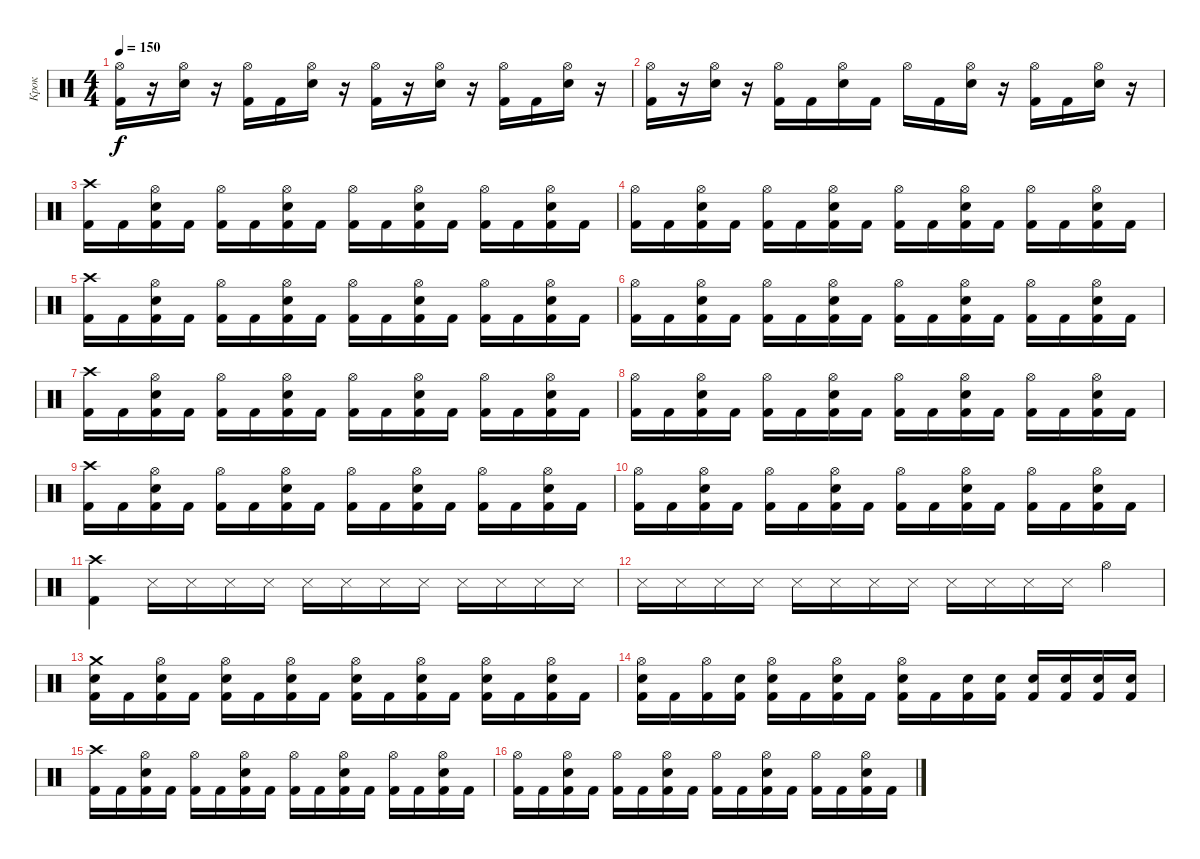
\track ("Крок" "Крок") {instrument percussion}
\staff {score}
\articulation defaults
\ts (4 4)
\tempo 150
\clef neutral
\ks c
("Hi-Hat (open)" "Kick (hit) 2").16{dy f} r.16 ("Hi-Hat (open)" "Electric Snare (hit)").16 r.16 ("Hi-Hat (open)" "Kick (hit) 2").16 "Kick (hit) 2".16 ("Hi-Hat (open)" "Electric Snare (hit)").16 r.16 ("Hi-Hat (open)" "Kick (hit) 2").16 r.16 ("Hi-Hat (open)" "Electric Snare (hit)").16 r.16 ("Hi-Hat (open)" "Kick (hit) 2").16 "Kick (hit) 2".16 ("Hi-Hat (open)" "Electric Snare (hit)").16 r.16 |
("Hi-Hat (open)" "Kick (hit) 2").16 r.16 ("Hi-Hat (open)" "Electric Snare (hit)").16 r.16 ("Hi-Hat (open)" "Kick (hit) 2").16 "Kick (hit) 2".16 ("Hi-Hat (open)" "Electric Snare (hit)").16 "Kick (hit) 2".16 "Hi-Hat (open)".16 "Kick (hit) 2".16 ("Hi-Hat (open)" "Electric Snare (hit)").16 r.16 ("Hi-Hat (open)" "Kick (hit) 2").16 "Kick (hit) 2".16 ("Hi-Hat (open)" "Electric Snare (hit)").16 r.16 |
("Crash high (hit)" "Kick (hit) 2").16 "Kick (hit) 2".16 ("Hi-Hat (open)" "Electric Snare (hit)" "Kick (hit) 2").16 "Kick (hit) 2".16 ("Hi-Hat (open)" "Kick (hit) 2").16 "Kick (hit) 2".16 ("Hi-Hat (open)" "Electric Snare (hit)" "Kick (hit) 2").16 "Kick (hit) 2".16 ("Hi-Hat (open)" "Kick (hit) 2").16 "Kick (hit) 2".16 ("Hi-Hat (open)" "Electric Snare (hit)" "Kick (hit) 2").16 "Kick (hit) 2".16 ("Hi-Hat (open)" "Kick (hit) 2").16 "Kick (hit) 2".16 ("Hi-Hat (open)" "Electric Snare (hit)" "Kick (hit) 2").16 "Kick (hit) 2".16 |
("Hi-Hat (open)" "Kick (hit) 2").16 "Kick (hit) 2".16 ("Hi-Hat (open)" "Electric Snare (hit)" "Kick (hit) 2").16 "Kick (hit) 2".16 ("Hi-Hat (open)" "Kick (hit) 2").16 "Kick (hit) 2".16 ("Hi-Hat (open)" "Electric Snare (hit)" "Kick (hit) 2").16 "Kick (hit) 2".16 ("Hi-Hat (open)" "Kick (hit) 2").16 "Kick (hit) 2".16 ("Hi-Hat (open)" "Electric Snare (hit)" "Kick (hit) 2").16 "Kick (hit) 2".16 ("Hi-Hat (open)" "Kick (hit) 2").16 "Kick (hit) 2".16 ("Hi-Hat (open)" "Electric Snare (hit)" "Kick (hit) 2").16 "Kick (hit) 2".16 |
("Crash high (hit)" "Kick (hit) 2").16 "Kick (hit) 2".16 ("Hi-Hat (open)" "Electric Snare (hit)" "Kick (hit) 2").16 "Kick (hit) 2".16 ("Hi-Hat (open)" "Kick (hit) 2").16 "Kick (hit) 2".16 ("Hi-Hat (open)" "Electric Snare (hit)" "Kick (hit) 2").16 "Kick (hit) 2".16 ("Hi-Hat (open)" "Kick (hit) 2").16 "Kick (hit) 2".16 ("Hi-Hat (open)" "Electric Snare (hit)" "Kick (hit) 2").16 "Kick (hit) 2".16 ("Hi-Hat (open)" "Kick (hit) 2").16 "Kick (hit) 2".16 ("Hi-Hat (open)" "Electric Snare (hit)" "Kick (hit) 2").16 "Kick (hit) 2".16 |
("Hi-Hat (open)" "Kick (hit) 2").16 "Kick (hit) 2".16 ("Hi-Hat (open)" "Electric Snare (hit)" "Kick (hit) 2").16 "Kick (hit) 2".16 ("Hi-Hat (open)" "Kick (hit) 2").16 "Kick (hit) 2".16 ("Hi-Hat (open)" "Electric Snare (hit)" "Kick (hit) 2").16 "Kick (hit) 2".16 ("Hi-Hat (open)" "Kick (hit) 2").16 "Kick (hit) 2".16 ("Hi-Hat (open)" "Electric Snare (hit)" "Kick (hit) 2").16 "Kick (hit) 2".16 ("Hi-Hat (open)" "Kick (hit) 2").16 "Kick (hit) 2".16 ("Hi-Hat (open)" "Electric Snare (hit)" "Kick (hit) 2").16 "Kick (hit) 2".16 |
("Crash high (hit)" "Kick (hit) 2").16 "Kick (hit) 2".16 ("Hi-Hat (open)" "Electric Snare (hit)" "Kick (hit) 2").16 "Kick (hit) 2".16 ("Hi-Hat (open)" "Kick (hit) 2").16 "Kick (hit) 2".16 ("Hi-Hat (open)" "Electric Snare (hit)" "Kick (hit) 2").16 "Kick (hit) 2".16 ("Hi-Hat (open)" "Kick (hit) 2").16 "Kick (hit) 2".16 ("Hi-Hat (open)" "Electric Snare (hit)" "Kick (hit) 2").16 "Kick (hit) 2".16 ("Hi-Hat (open)" "Kick (hit) 2").16 "Kick (hit) 2".16 ("Hi-Hat (open)" "Electric Snare (hit)" "Kick (hit) 2").16 "Kick (hit) 2".16 |
("Hi-Hat (open)" "Kick (hit) 2").16 "Kick (hit) 2".16 ("Hi-Hat (open)" "Electric Snare (hit)" "Kick (hit) 2").16 "Kick (hit) 2".16 ("Hi-Hat (open)" "Kick (hit) 2").16 "Kick (hit) 2".16 ("Hi-Hat (open)" "Electric Snare (hit)" "Kick (hit) 2").16 "Kick (hit) 2".16 ("Hi-Hat (open)" "Kick (hit) 2").16 "Kick (hit) 2".16 ("Hi-Hat (open)" "Electric Snare (hit)" "Kick (hit) 2").16 "Kick (hit) 2".16 ("Hi-Hat (open)" "Kick (hit) 2").16 "Kick (hit) 2".16 ("Hi-Hat (open)" "Electric Snare (hit)" "Kick (hit) 2").16 "Kick (hit) 2".16 |
("Crash high (hit)" "Kick (hit) 2").16 "Kick (hit) 2".16 ("Hi-Hat (open)" "Electric Snare (hit)" "Kick (hit) 2").16 "Kick (hit) 2".16 ("Hi-Hat (open)" "Kick (hit) 2").16 "Kick (hit) 2".16 ("Hi-Hat (open)" "Electric Snare (hit)" "Kick (hit) 2").16 "Kick (hit) 2".16 ("Hi-Hat (open)" "Kick (hit) 2").16 "Kick (hit) 2".16 ("Hi-Hat (open)" "Electric Snare (hit)" "Kick (hit) 2").16 "Kick (hit) 2".16 ("Hi-Hat (open)" "Kick (hit) 2").16 "Kick (hit) 2".16 ("Hi-Hat (open)" "Electric Snare (hit)" "Kick (hit) 2").16 "Kick (hit) 2".16 |
("Hi-Hat (open)" "Kick (hit) 2").16 "Kick (hit) 2".16 ("Hi-Hat (open)" "Electric Snare (hit)" "Kick (hit) 2").16 "Kick (hit) 2".16 ("Hi-Hat (open)" "Kick (hit) 2").16 "Kick (hit) 2".16 ("Hi-Hat (open)" "Electric Snare (hit)" "Kick (hit) 2").16 "Kick (hit) 2".16 ("Hi-Hat (open)" "Kick (hit) 2").16 "Kick (hit) 2".16 ("Hi-Hat (open)" "Electric Snare (hit)" "Kick (hit) 2").16 "Kick (hit) 2".16 ("Hi-Hat (open)" "Kick (hit) 2").16 "Kick (hit) 2".16 ("Hi-Hat (open)" "Electric Snare (hit)" "Kick (hit) 2").16 "Kick (hit) 2".16 |
("Crash high (hit)" "Kick (hit) 2").4 "Snare (side stick) 3".16 "Snare (side stick) 3".16 "Snare (side stick) 3".16 "Snare (side stick) 3".16 "Snare (side stick) 3".16 "Snare (side stick) 3".16 "Snare (side stick) 3".16 "Snare (side stick) 3".16 "Snare (side stick) 3".16 "Snare (side stick) 3".16 "Snare (side stick) 3".16 "Snare (side stick) 3".16 |
"Snare (side stick) 3".16 "Snare (side stick) 3".16 "Snare (side stick) 3".16 "Snare (side stick) 3".16 "Snare (side stick) 3".16 "Snare (side stick) 3".16 "Snare (side stick) 3".16 "Snare (side stick) 3".16 "Snare (side stick) 3".16 "Snare (side stick) 3".16 "Snare (side stick) 3".16 "Snare (side stick) 3".16 "Hi-Hat (open)".4 |
("Crash medium (hit)" "Electric Snare (hit)" "Kick (hit) 2").16 "Kick (hit) 2".16 ("Hi-Hat (open)" "Electric Snare (hit)" "Kick (hit) 2").16 "Kick (hit) 2".16 ("Hi-Hat (open)" "Electric Snare (hit)" "Kick (hit) 2").16 "Kick (hit) 2".16 ("Hi-Hat (open)" "Electric Snare (hit)" "Kick (hit) 2").16 "Kick (hit) 2".16 ("Hi-Hat (open)" "Electric Snare (hit)" "Kick (hit) 2").16 "Kick (hit) 2".16 ("Hi-Hat (open)" "Electric Snare (hit)" "Kick (hit) 2").16 "Kick (hit) 2".16 ("Hi-Hat (open)" "Electric Snare (hit)" "Kick (hit) 2").16 "Kick (hit) 2".16 ("Hi-Hat (open)" "Electric Snare (hit)" "Kick (hit) 2").16 "Kick (hit) 2".16 |
("Hi-Hat (open)" "Electric Snare (hit)" "Kick (hit) 2").16 "Kick (hit) 2".16 ("Hi-Hat (open)" "Kick (hit) 2").16 ("Electric Snare (hit)" "Kick (hit) 2").16 ("Hi-Hat (open)" "Electric Snare (hit)" "Kick (hit) 2").16 "Kick (hit) 2".16 ("Hi-Hat (open)" "Electric Snare (hit)" "Kick (hit) 2").16 "Kick (hit) 2".16 ("Hi-Hat (open)" "Electric Snare (hit)" "Kick (hit) 2").16 "Kick (hit) 2".16 ("Electric Snare (hit)" "Kick (hit) 2").16 ("Electric Snare (hit)" "Kick (hit) 2").16 ("Electric Snare (hit)" "Kick (hit) 2").16 ("Electric Snare (hit)" "Kick (hit) 2").16 ("Electric Snare (hit)" "Kick (hit) 2").16 ("Electric Snare (hit)" "Kick (hit) 2").16 |
("Crash high (hit)" "Kick (hit) 2").16 "Kick (hit) 2".16 ("Hi-Hat (open)" "Electric Snare (hit)" "Kick (hit) 2").16 "Kick (hit) 2".16 ("Hi-Hat (open)" "Kick (hit) 2").16 "Kick (hit) 2".16 ("Hi-Hat (open)" "Electric Snare (hit)" "Kick (hit) 2").16 "Kick (hit) 2".16 ("Hi-Hat (open)" "Kick (hit) 2").16 "Kick (hit) 2".16 ("Hi-Hat (open)" "Electric Snare (hit)" "Kick (hit) 2").16 "Kick (hit) 2".16 ("Hi-Hat (open)" "Kick (hit) 2").16 "Kick (hit) 2".16 ("Hi-Hat (open)" "Electric Snare (hit)" "Kick (hit) 2").16 "Kick (hit) 2".16 |
("Hi-Hat (open)" "Kick (hit) 2").16 "Kick (hit) 2".16 ("Hi-Hat (open)" "Electric Snare (hit)" "Kick (hit) 2").16 "Kick (hit) 2".16 ("Hi-Hat (open)" "Kick (hit) 2").16 "Kick (hit) 2".16 ("Hi-Hat (open)" "Electric Snare (hit)" "Kick (hit) 2").16 "Kick (hit) 2".16 ("Hi-Hat (open)" "Kick (hit) 2").16 "Kick (hit) 2".16 ("Hi-Hat (open)" "Electric Snare (hit)" "Kick (hit) 2").16 "Kick (hit) 2".16 ("Hi-Hat (open)" "Kick (hit) 2").16 "Kick (hit) 2".16 ("Hi-Hat (open)" "Electric Snare (hit)" "Kick (hit) 2").16 "Kick (hit) 2".16
